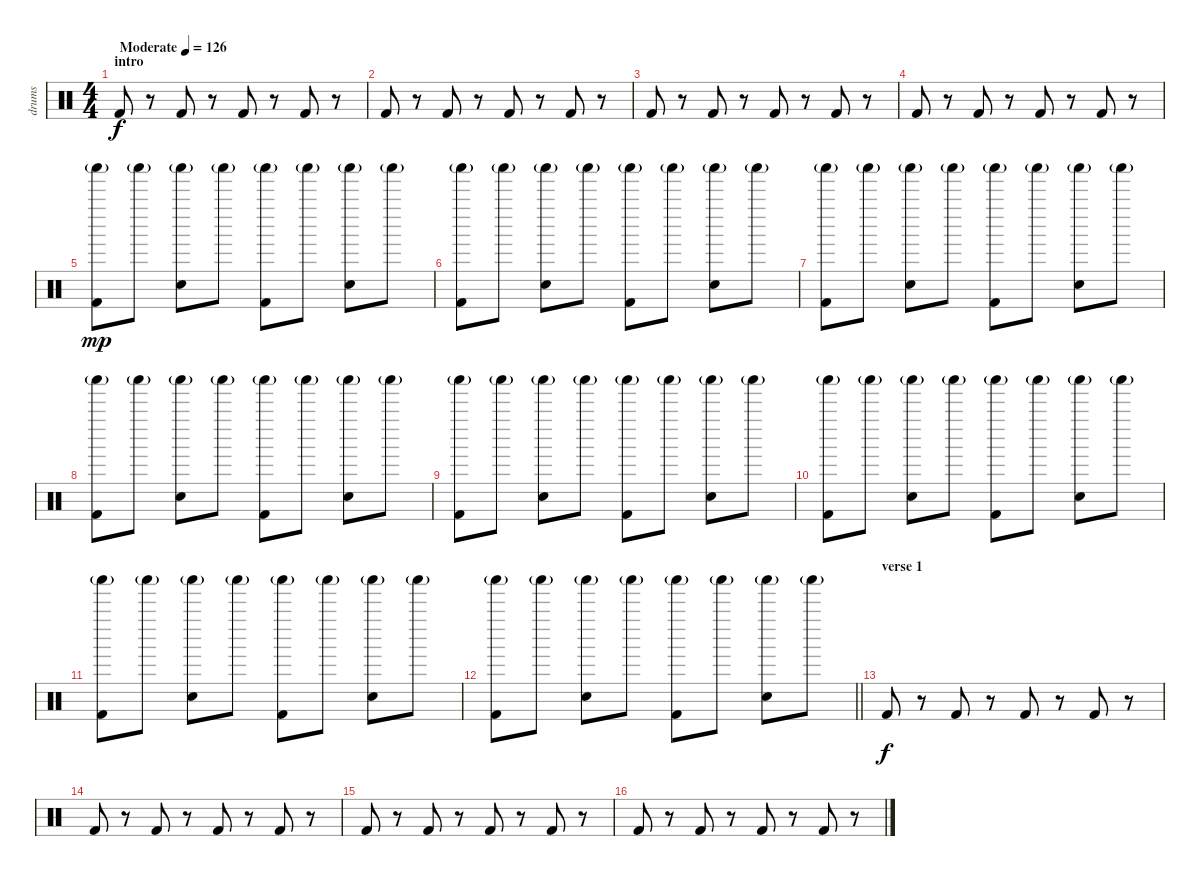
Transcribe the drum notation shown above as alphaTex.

\track ("drums" "drums") {instrument percussion}
\staff {score}
\articulation defaults
\ts (4 4)
\section ("" "intro")
\tempo (126 "Moderate")
\clef neutral
\ks c "Kick (hit) 2".8{dy f}
r.8 "Kick (hit) 2".8 r.8 "Kick (hit) 2".8 r.8 "Kick (hit) 2".8 r.8 |
"Kick (hit) 2".8 r.8 "Kick (hit) 2".8 r.8 "Kick (hit) 2".8 r.8 "Kick (hit) 2".8 r.8 |
"Kick (hit) 2".8 r.8 "Kick (hit) 2".8 r.8 "Kick (hit) 2".8 r.8 "Kick (hit) 2".8 r.8 |
"Kick (hit) 2".8 r.8 "Kick (hit) 2".8 r.8 "Kick (hit) 2".8 r.8 "Kick (hit) 2".8 r.8 |
("Kick (hit) 2" "Shaker (hit)"{g}).8{dy mp} "Shaker (hit)"{g}.8 ("Hand Clap (hit)" "Shaker (hit)"{g}).8 "Shaker (hit)"{g}.8 ("Kick (hit) 2" "Shaker (hit)"{g}).8 "Shaker (hit)"{g}.8 ("Hand Clap (hit)" "Shaker (hit)"{g}).8 "Shaker (hit)"{g}.8 |
("Kick (hit) 2" "Shaker (hit)"{g}).8 "Shaker (hit)"{g}.8 ("Hand Clap (hit)" "Shaker (hit)"{g}).8 "Shaker (hit)"{g}.8 ("Kick (hit) 2" "Shaker (hit)"{g}).8 "Shaker (hit)"{g}.8 ("Hand Clap (hit)" "Shaker (hit)"{g}).8 "Shaker (hit)"{g}.8 |
("Kick (hit) 2" "Shaker (hit)"{g}).8 "Shaker (hit)"{g}.8 ("Hand Clap (hit)" "Shaker (hit)"{g}).8 "Shaker (hit)"{g}.8 ("Kick (hit) 2" "Shaker (hit)"{g}).8 "Shaker (hit)"{g}.8 ("Hand Clap (hit)" "Shaker (hit)"{g}).8 "Shaker (hit)"{g}.8 |
("Kick (hit) 2" "Shaker (hit)"{g}).8 "Shaker (hit)"{g}.8 ("Hand Clap (hit)" "Shaker (hit)"{g}).8 "Shaker (hit)"{g}.8 ("Kick (hit) 2" "Shaker (hit)"{g}).8 "Shaker (hit)"{g}.8 ("Hand Clap (hit)" "Shaker (hit)"{g}).8 "Shaker (hit)"{g}.8 |
("Kick (hit) 2" "Shaker (hit)"{g}).8 "Shaker (hit)"{g}.8 ("Hand Clap (hit)" "Shaker (hit)"{g}).8 "Shaker (hit)"{g}.8 ("Kick (hit) 2" "Shaker (hit)"{g}).8 "Shaker (hit)"{g}.8 ("Hand Clap (hit)" "Shaker (hit)"{g}).8 "Shaker (hit)"{g}.8 |
("Kick (hit) 2" "Shaker (hit)"{g}).8 "Shaker (hit)"{g}.8 ("Hand Clap (hit)" "Shaker (hit)"{g}).8 "Shaker (hit)"{g}.8 ("Kick (hit) 2" "Shaker (hit)"{g}).8 "Shaker (hit)"{g}.8 ("Hand Clap (hit)" "Shaker (hit)"{g}).8 "Shaker (hit)"{g}.8 |
("Kick (hit) 2" "Shaker (hit)"{g}).8 "Shaker (hit)"{g}.8 ("Hand Clap (hit)" "Shaker (hit)"{g}).8 "Shaker (hit)"{g}.8 ("Kick (hit) 2" "Shaker (hit)"{g}).8 "Shaker (hit)"{g}.8 ("Hand Clap (hit)" "Shaker (hit)"{g}).8 "Shaker (hit)"{g}.8 |
\barLineRight lightlight
("Kick (hit) 2" "Shaker (hit)"{g}).8 "Shaker (hit)"{g}.8 ("Hand Clap (hit)" "Shaker (hit)"{g}).8 "Shaker (hit)"{g}.8 ("Kick (hit) 2" "Shaker (hit)"{g}).8 "Shaker (hit)"{g}.8 ("Hand Clap (hit)" "Shaker (hit)"{g}).8 "Shaker (hit)"{g}.8 |
\section ("" "verse 1")
"Kick (hit) 2".8{dy f} r.8 "Kick (hit) 2".8 r.8 "Kick (hit) 2".8 r.8 "Kick (hit) 2".8 r.8 |
"Kick (hit) 2".8 r.8 "Kick (hit) 2".8 r.8 "Kick (hit) 2".8 r.8 "Kick (hit) 2".8 r.8 |
"Kick (hit) 2".8 r.8 "Kick (hit) 2".8 r.8 "Kick (hit) 2".8 r.8 "Kick (hit) 2".8 r.8 |
"Kick (hit) 2".8 r.8 "Kick (hit) 2".8 r.8 "Kick (hit) 2".8 r.8 "Kick (hit) 2".8 r.8
